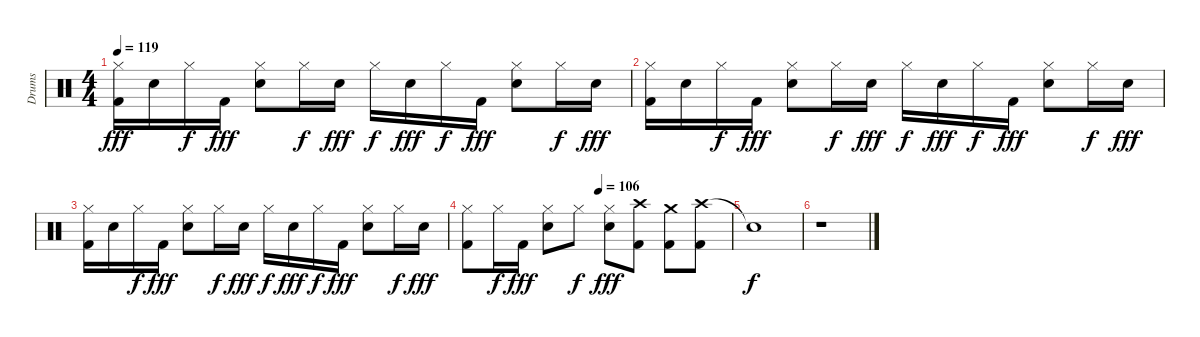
\track ("Drums" "Drums") {instrument percussion}
\staff {score}
\articulation defaults
\ts (4 4)
\tempo 119
\clef neutral
\ks c
("Hi-Hat (closed)" "Kick (hit) 2").16{dy fff} "Electric Snare (hit)".16 "Hi-Hat (closed)".16{dy f} "Kick (hit) 2".16{dy fff} ("Hi-Hat (closed)" "Electric Snare (hit)").8 "Hi-Hat (closed)".16{dy f} "Electric Snare (hit)".16{dy fff} "Hi-Hat (closed)".16{dy f} "Electric Snare (hit)".16{dy fff} "Hi-Hat (closed)".16{dy f} "Kick (hit) 2".16{dy fff} ("Hi-Hat (closed)" "Electric Snare (hit)").8 "Hi-Hat (closed)".16{dy f} "Electric Snare (hit)".16{dy fff} |
("Hi-Hat (closed)" "Kick (hit) 2").16 "Electric Snare (hit)".16 "Hi-Hat (closed)".16{dy f} "Kick (hit) 2".16{dy fff} ("Hi-Hat (closed)" "Electric Snare (hit)").8 "Hi-Hat (closed)".16{dy f} "Electric Snare (hit)".16{dy fff} "Hi-Hat (closed)".16{dy f} "Electric Snare (hit)".16{dy fff} "Hi-Hat (closed)".16{dy f} "Kick (hit) 2".16{dy fff} ("Hi-Hat (closed)" "Electric Snare (hit)").8 "Hi-Hat (closed)".16{dy f} "Electric Snare (hit)".16{dy fff} |
("Hi-Hat (closed)" "Kick (hit) 2").16 "Electric Snare (hit)".16 "Hi-Hat (closed)".16{dy f} "Kick (hit) 2".16{dy fff} ("Hi-Hat (closed)" "Electric Snare (hit)").8 "Hi-Hat (closed)".16{dy f} "Electric Snare (hit)".16{dy fff} "Hi-Hat (closed)".16{dy f} "Electric Snare (hit)".16{dy fff} "Hi-Hat (closed)".16{dy f} "Kick (hit) 2".16{dy fff} ("Hi-Hat (closed)" "Electric Snare (hit)").8 "Hi-Hat (closed)".16{dy f} "Electric Snare (hit)".16{dy fff} |
\tempo (106 0.5)
("Hi-Hat (closed)" "Kick (hit) 2").8 "Hi-Hat (closed)".16{dy f} "Kick (hit) 2".16{dy fff} ("Hi-Hat (closed)" "Electric Snare (hit)").8 "Hi-Hat (closed)".8{dy f} ("Hi-Hat (closed)" "Electric Snare (hit)").8{dy fff} ("Crash high (hit)" "Kick (hit) 2").8 ("Crash medium (hit)" "Kick (hit) 2").8 ("Crash high (hit)" "Kick (hit) 2").8 |
"Snare (hit)"{t}.1{dy f} |
r.1
